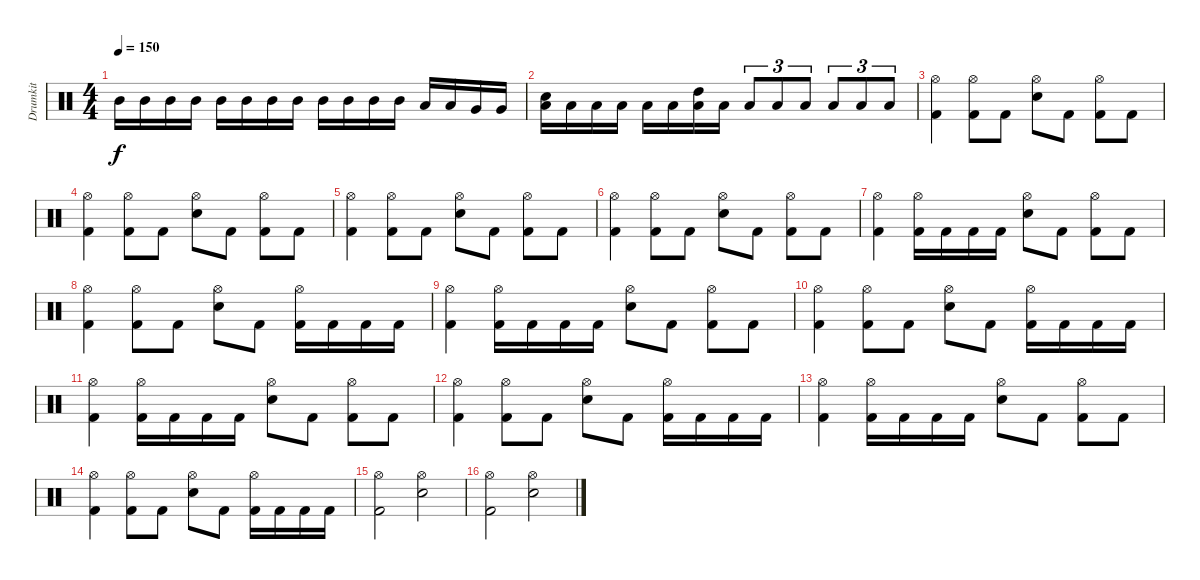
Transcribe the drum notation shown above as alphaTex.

\track ("Drumkit" "Drumkit") {instrument percussion}
\staff {score}
\articulation defaults
\ts (4 4)
\tempo 150
\clef neutral
\ks c "Mid Tom (hit)".16{dy f} "Mid Tom (hit)".16 "Mid Tom (hit)".16 "Mid Tom (hit)".16 "Mid Tom (hit)".16 "Mid Tom (hit)".16 "Mid Tom (hit)".16 "Mid Tom (hit)".16 "Mid Tom (hit)".16 "Mid Tom (hit)".16 "Mid Tom (hit)".16 "Mid Tom (hit)".16 "Low Tom (hit)".16 "Low Tom (hit)".16 "Very Low Tom (hit)".16 "Very Low Tom (hit)".16
|
("Snare (hit) 2" "Low Tom (hit)").16 "Low Tom (hit)".16 "Low Tom (hit)".16 "Low Tom (hit)".16 "Low Tom (hit)".16 "Low Tom (hit)".16 ("Low Tom (hit)" "High Tom (hit)").16 "Low Tom (hit)".16 "Low Tom (hit)".8{tu (3 2)} "Low Tom (hit)".8{tu (3 2)} "Low Tom (hit)".8{tu (3 2)} "Low Tom (hit)".8{tu (3 2)} "Low Tom (hit)".8{tu (3 2)} "Low Tom (hit)".8{tu (3 2)} |
("Kick (hit) 2" "Hi-Hat (open)").4 ("Hi-Hat (open)" "Kick (hit) 2").8 "Kick (hit) 2".8 ("Snare (hit) 2" "Hi-Hat (open)").8 "Kick (hit) 2".8 ("Kick (hit) 2" "Hi-Hat (open)").8 "Kick (hit) 2".8 |
("Kick (hit) 2" "Hi-Hat (open)").4 ("Hi-Hat (open)" "Kick (hit) 2").8 "Kick (hit) 2".8 ("Snare (hit) 2" "Hi-Hat (open)").8 "Kick (hit) 2".8 ("Kick (hit) 2" "Hi-Hat (open)").8 "Kick (hit) 2".8 |
("Kick (hit) 2" "Hi-Hat (open)").4 ("Hi-Hat (open)" "Kick (hit) 2").8 "Kick (hit) 2".8 ("Snare (hit) 2" "Hi-Hat (open)").8 "Kick (hit) 2".8 ("Kick (hit) 2" "Hi-Hat (open)").8 "Kick (hit) 2".8 |
("Kick (hit) 2" "Hi-Hat (open)").4 ("Hi-Hat (open)" "Kick (hit) 2").8 "Kick (hit) 2".8 ("Snare (hit) 2" "Hi-Hat (open)").8 "Kick (hit) 2".8 ("Kick (hit) 2" "Hi-Hat (open)").8 "Kick (hit) 2".8 |
("Hi-Hat (open)" "Kick (hit) 2").4 ("Kick (hit) 2" "Hi-Hat (open)").16 "Kick (hit) 2".16 "Kick (hit) 2".16 "Kick (hit) 2".16 ("Snare (hit) 2" "Hi-Hat (open)").8 "Kick (hit) 2".8 ("Kick (hit) 2" "Hi-Hat (open)").8 "Kick (hit) 2".8 |
("Kick (hit) 2" "Hi-Hat (open)").4 ("Hi-Hat (open)" "Kick (hit) 2").8 "Kick (hit) 2".8 ("Snare (hit) 2" "Hi-Hat (open)").8 "Kick (hit) 2".8 ("Kick (hit) 2" "Hi-Hat (open)").16 "Kick (hit) 2".16 "Kick (hit) 2".16 "Kick (hit) 2".16 |
("Hi-Hat (open)" "Kick (hit) 2").4 ("Kick (hit) 2" "Hi-Hat (open)").16 "Kick (hit) 2".16 "Kick (hit) 2".16 "Kick (hit) 2".16 ("Snare (hit) 2" "Hi-Hat (open)").8 "Kick (hit) 2".8 ("Kick (hit) 2" "Hi-Hat (open)").8 "Kick (hit) 2".8 |
("Kick (hit) 2" "Hi-Hat (open)").4 ("Hi-Hat (open)" "Kick (hit) 2").8 "Kick (hit) 2".8 ("Snare (hit) 2" "Hi-Hat (open)").8 "Kick (hit) 2".8 ("Kick (hit) 2" "Hi-Hat (open)").16 "Kick (hit) 2".16 "Kick (hit) 2".16 "Kick (hit) 2".16 |
("Hi-Hat (open)" "Kick (hit) 2").4 ("Kick (hit) 2" "Hi-Hat (open)").16 "Kick (hit) 2".16 "Kick (hit) 2".16 "Kick (hit) 2".16 ("Snare (hit) 2" "Hi-Hat (open)").8 "Kick (hit) 2".8 ("Kick (hit) 2" "Hi-Hat (open)").8 "Kick (hit) 2".8 |
("Kick (hit) 2" "Hi-Hat (open)").4 ("Hi-Hat (open)" "Kick (hit) 2").8 "Kick (hit) 2".8 ("Snare (hit) 2" "Hi-Hat (open)").8 "Kick (hit) 2".8 ("Kick (hit) 2" "Hi-Hat (open)").16 "Kick (hit) 2".16 "Kick (hit) 2".16 "Kick (hit) 2".16 |
("Hi-Hat (open)" "Kick (hit) 2").4 ("Kick (hit) 2" "Hi-Hat (open)").16 "Kick (hit) 2".16 "Kick (hit) 2".16 "Kick (hit) 2".16 ("Snare (hit) 2" "Hi-Hat (open)").8 "Kick (hit) 2".8 ("Kick (hit) 2" "Hi-Hat (open)").8 "Kick (hit) 2".8 |
("Kick (hit) 2" "Hi-Hat (open)").4 ("Hi-Hat (open)" "Kick (hit) 2").8 "Kick (hit) 2".8 ("Snare (hit) 2" "Hi-Hat (open)").8 "Kick (hit) 2".8 ("Kick (hit) 2" "Hi-Hat (open)").16 "Kick (hit) 2".16 "Kick (hit) 2".16 "Kick (hit) 2".16 |
("Kick (hit) 2" "Hi-Hat (open)").2 ("Snare (hit) 2" "Hi-Hat (open)").2 |
("Kick (hit) 2" "Hi-Hat (open)").2 ("Snare (hit) 2" "Hi-Hat (open)").2
